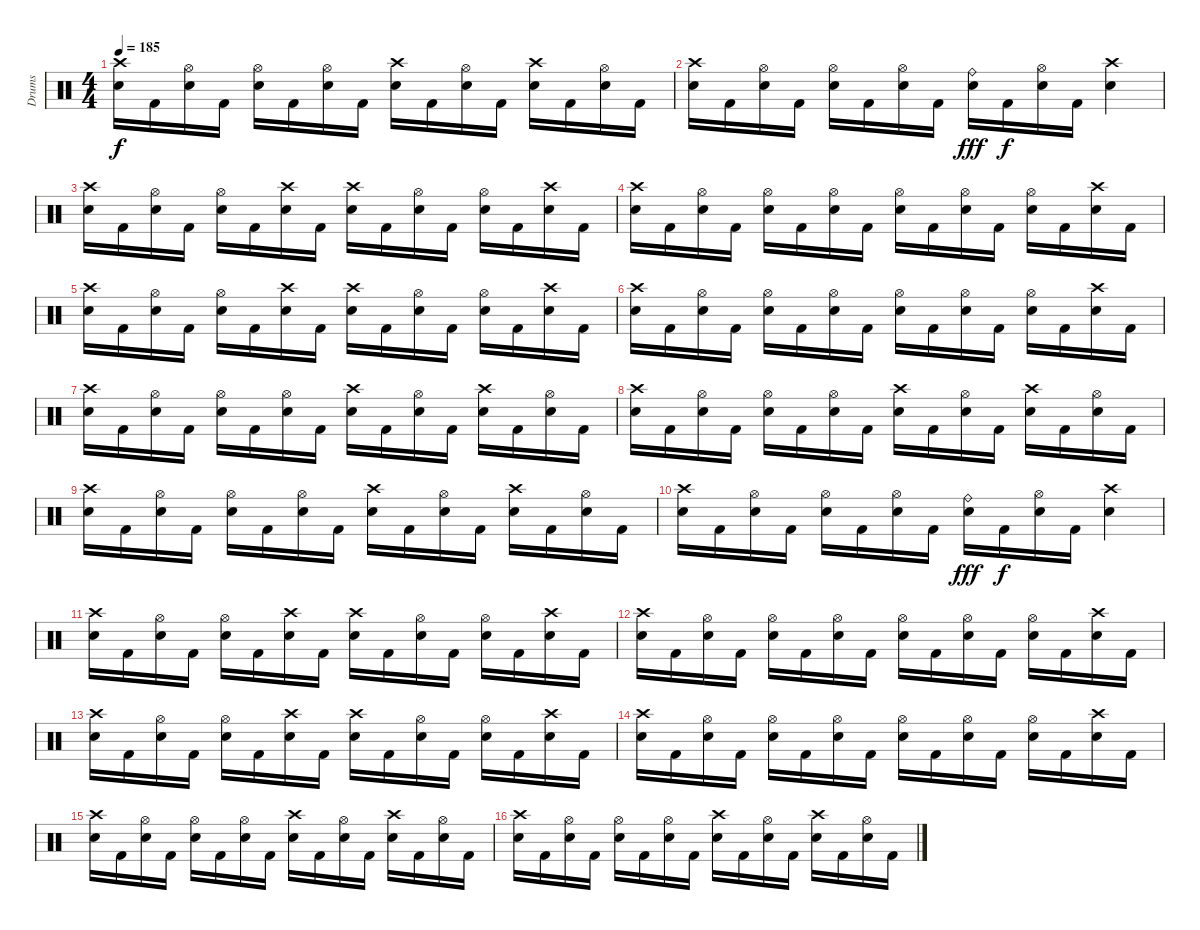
\track ("Drums" "Drums") {instrument percussion}
\staff {score}
\articulation defaults
\ts (4 4)
\tempo 185
\clef neutral
\ks c
("Crash high (hit)" "Electric Snare (hit)").16{dy f} "Kick (hit) 2".16 ("Hi-Hat (open)" "Electric Snare (hit)").16 "Kick (hit) 2".16 ("Hi-Hat (open)" "Electric Snare (hit)").16 "Kick (hit) 2".16 ("Hi-Hat (open)" "Electric Snare (hit)").16 "Kick (hit) 2".16 ("Crash high (hit)" "Electric Snare (hit)").16 "Kick (hit) 2".16 ("Hi-Hat (open)" "Electric Snare (hit)").16 "Kick (hit) 2".16 ("Crash high (hit)" "Electric Snare (hit)").16 "Kick (hit) 2".16 ("Hi-Hat (open)" "Electric Snare (hit)").16 "Kick (hit) 2".16 |
("Crash high (hit)" "Electric Snare (hit)").16 "Kick (hit) 2".16 ("Hi-Hat (open)" "Electric Snare (hit)").16 "Kick (hit) 2".16 ("Hi-Hat (open)" "Electric Snare (hit)").16 "Kick (hit) 2".16 ("Hi-Hat (open)" "Electric Snare (hit)").16 "Kick (hit) 2".16 ("Ride (bell)" "Electric Snare (hit)").16{dy fff} "Kick (hit) 2".16{dy f} ("Hi-Hat (open)" "Electric Snare (hit)").16 "Kick (hit) 2".16 ("Crash high (hit)" "Electric Snare (hit)").4 |
("Crash high (hit)" "Electric Snare (hit)").16 "Kick (hit) 2".16 ("Hi-Hat (open)" "Electric Snare (hit)").16 "Kick (hit) 2".16 ("Hi-Hat (open)" "Electric Snare (hit)").16 "Kick (hit) 2".16 ("Crash high (hit)" "Electric Snare (hit)").16 "Kick (hit) 2".16 ("Crash high (hit)" "Electric Snare (hit)").16 "Kick (hit) 2".16 ("Hi-Hat (open)" "Electric Snare (hit)").16 "Kick (hit) 2".16 ("Hi-Hat (open)" "Electric Snare (hit)").16 "Kick (hit) 2".16 ("Crash high (hit)" "Electric Snare (hit)").16 "Kick (hit) 2".16 |
("Crash high (hit)" "Electric Snare (hit)").16 "Kick (hit) 2".16 ("Hi-Hat (open)" "Electric Snare (hit)").16 "Kick (hit) 2".16 ("Hi-Hat (open)" "Electric Snare (hit)").16 "Kick (hit) 2".16 ("Hi-Hat (open)" "Electric Snare (hit)").16 "Kick (hit) 2".16 ("Hi-Hat (open)" "Electric Snare (hit)").16 "Kick (hit) 2".16 ("Hi-Hat (open)" "Electric Snare (hit)").16 "Kick (hit) 2".16 ("Hi-Hat (open)" "Electric Snare (hit)").16 "Kick (hit) 2".16 ("Crash high (hit)" "Electric Snare (hit)").16 "Kick (hit) 2".16 |
("Crash high (hit)" "Electric Snare (hit)").16 "Kick (hit) 2".16 ("Hi-Hat (open)" "Electric Snare (hit)").16 "Kick (hit) 2".16 ("Hi-Hat (open)" "Electric Snare (hit)").16 "Kick (hit) 2".16 ("Crash high (hit)" "Electric Snare (hit)").16 "Kick (hit) 2".16 ("Crash high (hit)" "Electric Snare (hit)").16 "Kick (hit) 2".16 ("Hi-Hat (open)" "Electric Snare (hit)").16 "Kick (hit) 2".16 ("Hi-Hat (open)" "Electric Snare (hit)").16 "Kick (hit) 2".16 ("Crash high (hit)" "Electric Snare (hit)").16 "Kick (hit) 2".16 |
("Crash high (hit)" "Electric Snare (hit)").16 "Kick (hit) 2".16 ("Hi-Hat (open)" "Electric Snare (hit)").16 "Kick (hit) 2".16 ("Hi-Hat (open)" "Electric Snare (hit)").16 "Kick (hit) 2".16 ("Hi-Hat (open)" "Electric Snare (hit)").16 "Kick (hit) 2".16 ("Hi-Hat (open)" "Electric Snare (hit)").16 "Kick (hit) 2".16 ("Hi-Hat (open)" "Electric Snare (hit)").16 "Kick (hit) 2".16 ("Hi-Hat (open)" "Electric Snare (hit)").16 "Kick (hit) 2".16 ("Crash high (hit)" "Electric Snare (hit)").16 "Kick (hit) 2".16 |
("Crash high (hit)" "Electric Snare (hit)").16 "Kick (hit) 2".16 ("Hi-Hat (open)" "Electric Snare (hit)").16 "Kick (hit) 2".16 ("Hi-Hat (open)" "Electric Snare (hit)").16 "Kick (hit) 2".16 ("Hi-Hat (open)" "Electric Snare (hit)").16 "Kick (hit) 2".16 ("Crash high (hit)" "Electric Snare (hit)").16 "Kick (hit) 2".16 ("Hi-Hat (open)" "Electric Snare (hit)").16 "Kick (hit) 2".16 ("Crash high (hit)" "Electric Snare (hit)").16 "Kick (hit) 2".16 ("Hi-Hat (open)" "Electric Snare (hit)").16 "Kick (hit) 2".16 |
("Crash high (hit)" "Electric Snare (hit)").16 "Kick (hit) 2".16 ("Hi-Hat (open)" "Electric Snare (hit)").16 "Kick (hit) 2".16 ("Hi-Hat (open)" "Electric Snare (hit)").16 "Kick (hit) 2".16 ("Hi-Hat (open)" "Electric Snare (hit)").16 "Kick (hit) 2".16 ("Crash high (hit)" "Electric Snare (hit)").16 "Kick (hit) 2".16 ("Hi-Hat (open)" "Electric Snare (hit)").16 "Kick (hit) 2".16 ("Crash high (hit)" "Electric Snare (hit)").16 "Kick (hit) 2".16 ("Hi-Hat (open)" "Electric Snare (hit)").16 "Kick (hit) 2".16 |
("Crash high (hit)" "Electric Snare (hit)").16 "Kick (hit) 2".16 ("Hi-Hat (open)" "Electric Snare (hit)").16 "Kick (hit) 2".16 ("Hi-Hat (open)" "Electric Snare (hit)").16 "Kick (hit) 2".16 ("Hi-Hat (open)" "Electric Snare (hit)").16 "Kick (hit) 2".16 ("Crash high (hit)" "Electric Snare (hit)").16 "Kick (hit) 2".16 ("Hi-Hat (open)" "Electric Snare (hit)").16 "Kick (hit) 2".16 ("Crash high (hit)" "Electric Snare (hit)").16 "Kick (hit) 2".16 ("Hi-Hat (open)" "Electric Snare (hit)").16 "Kick (hit) 2".16 |
("Crash high (hit)" "Electric Snare (hit)").16 "Kick (hit) 2".16 ("Hi-Hat (open)" "Electric Snare (hit)").16 "Kick (hit) 2".16 ("Hi-Hat (open)" "Electric Snare (hit)").16 "Kick (hit) 2".16 ("Hi-Hat (open)" "Electric Snare (hit)").16 "Kick (hit) 2".16 ("Ride (bell)" "Electric Snare (hit)").16{dy fff} "Kick (hit) 2".16{dy f} ("Hi-Hat (open)" "Electric Snare (hit)").16 "Kick (hit) 2".16 ("Crash high (hit)" "Electric Snare (hit)").4 |
("Crash high (hit)" "Electric Snare (hit)").16 "Kick (hit) 2".16 ("Hi-Hat (open)" "Electric Snare (hit)").16 "Kick (hit) 2".16 ("Hi-Hat (open)" "Electric Snare (hit)").16 "Kick (hit) 2".16 ("Crash high (hit)" "Electric Snare (hit)").16 "Kick (hit) 2".16 ("Crash high (hit)" "Electric Snare (hit)").16 "Kick (hit) 2".16 ("Hi-Hat (open)" "Electric Snare (hit)").16 "Kick (hit) 2".16 ("Hi-Hat (open)" "Electric Snare (hit)").16 "Kick (hit) 2".16 ("Crash high (hit)" "Electric Snare (hit)").16 "Kick (hit) 2".16 |
("Crash high (hit)" "Electric Snare (hit)").16 "Kick (hit) 2".16 ("Hi-Hat (open)" "Electric Snare (hit)").16 "Kick (hit) 2".16 ("Hi-Hat (open)" "Electric Snare (hit)").16 "Kick (hit) 2".16 ("Hi-Hat (open)" "Electric Snare (hit)").16 "Kick (hit) 2".16 ("Hi-Hat (open)" "Electric Snare (hit)").16 "Kick (hit) 2".16 ("Hi-Hat (open)" "Electric Snare (hit)").16 "Kick (hit) 2".16 ("Hi-Hat (open)" "Electric Snare (hit)").16 "Kick (hit) 2".16 ("Crash high (hit)" "Electric Snare (hit)").16 "Kick (hit) 2".16 |
("Crash high (hit)" "Electric Snare (hit)").16 "Kick (hit) 2".16 ("Hi-Hat (open)" "Electric Snare (hit)").16 "Kick (hit) 2".16 ("Hi-Hat (open)" "Electric Snare (hit)").16 "Kick (hit) 2".16 ("Crash high (hit)" "Electric Snare (hit)").16 "Kick (hit) 2".16 ("Crash high (hit)" "Electric Snare (hit)").16 "Kick (hit) 2".16 ("Hi-Hat (open)" "Electric Snare (hit)").16 "Kick (hit) 2".16 ("Hi-Hat (open)" "Electric Snare (hit)").16 "Kick (hit) 2".16 ("Crash high (hit)" "Electric Snare (hit)").16 "Kick (hit) 2".16 |
("Crash high (hit)" "Electric Snare (hit)").16 "Kick (hit) 2".16 ("Hi-Hat (open)" "Electric Snare (hit)").16 "Kick (hit) 2".16 ("Hi-Hat (open)" "Electric Snare (hit)").16 "Kick (hit) 2".16 ("Hi-Hat (open)" "Electric Snare (hit)").16 "Kick (hit) 2".16 ("Hi-Hat (open)" "Electric Snare (hit)").16 "Kick (hit) 2".16 ("Hi-Hat (open)" "Electric Snare (hit)").16 "Kick (hit) 2".16 ("Hi-Hat (open)" "Electric Snare (hit)").16 "Kick (hit) 2".16 ("Crash high (hit)" "Electric Snare (hit)").16 "Kick (hit) 2".16 |
("Crash high (hit)" "Electric Snare (hit)").16 "Kick (hit) 2".16 ("Hi-Hat (open)" "Electric Snare (hit)").16 "Kick (hit) 2".16 ("Hi-Hat (open)" "Electric Snare (hit)").16 "Kick (hit) 2".16 ("Hi-Hat (open)" "Electric Snare (hit)").16 "Kick (hit) 2".16 ("Crash high (hit)" "Electric Snare (hit)").16 "Kick (hit) 2".16 ("Hi-Hat (open)" "Electric Snare (hit)").16 "Kick (hit) 2".16 ("Crash high (hit)" "Electric Snare (hit)").16 "Kick (hit) 2".16 ("Hi-Hat (open)" "Electric Snare (hit)").16 "Kick (hit) 2".16 |
("Crash high (hit)" "Electric Snare (hit)").16 "Kick (hit) 2".16 ("Hi-Hat (open)" "Electric Snare (hit)").16 "Kick (hit) 2".16 ("Hi-Hat (open)" "Electric Snare (hit)").16 "Kick (hit) 2".16 ("Hi-Hat (open)" "Electric Snare (hit)").16 "Kick (hit) 2".16 ("Crash high (hit)" "Electric Snare (hit)").16 "Kick (hit) 2".16 ("Hi-Hat (open)" "Electric Snare (hit)").16 "Kick (hit) 2".16 ("Crash high (hit)" "Electric Snare (hit)").16 "Kick (hit) 2".16 ("Hi-Hat (open)" "Electric Snare (hit)").16 "Kick (hit) 2".16
